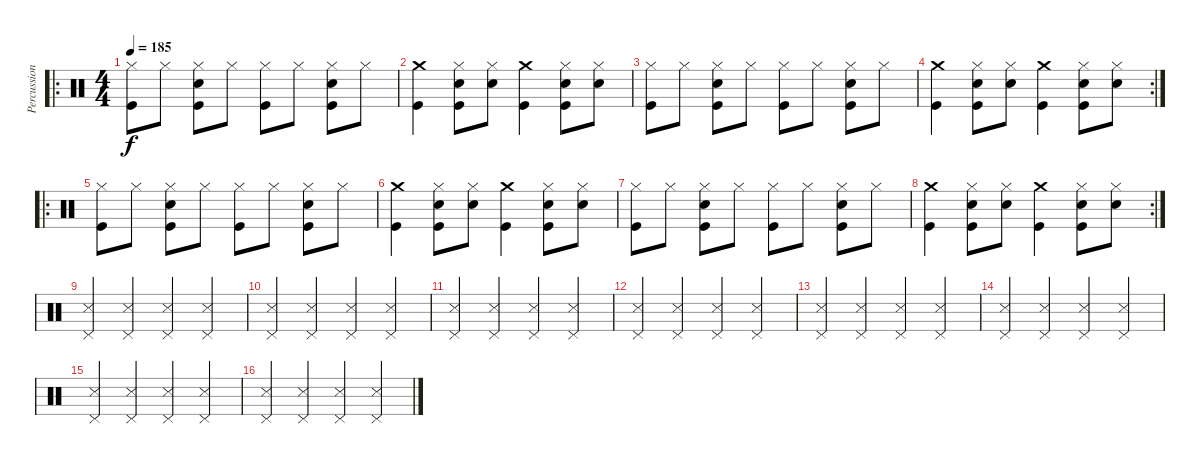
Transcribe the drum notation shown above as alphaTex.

\track ("Percussion" "Percussion") {instrument percussion}
\staff {score}
\articulation defaults
\ro
\ts (4 4)
\tempo 185
\clef neutral
\ks c
("Hi-Hat (closed)" "Kick (hit)").8{dy f} "Hi-Hat (closed)".8 ("Hi-Hat (closed)" "Snare (hit) 2" "Kick (hit)").8 "Hi-Hat (closed)".8 ("Hi-Hat (closed)" "Kick (hit)").8 "Hi-Hat (closed)".8 ("Hi-Hat (closed)" "Snare (hit) 2" "Kick (hit)").8 "Hi-Hat (closed)".8 |
("Crash medium (hit)" "Kick (hit)").4 ("Hi-Hat (closed)" "Snare (hit) 2" "Kick (hit)").8 ("Hi-Hat (closed)" "Snare (hit) 2").8 ("Crash medium (hit)" "Kick (hit)").4 ("Hi-Hat (closed)" "Snare (hit) 2" "Kick (hit)").8 ("Hi-Hat (closed)" "Snare (hit) 2").8 |
("Hi-Hat (closed)" "Kick (hit)").8 "Hi-Hat (closed)".8 ("Hi-Hat (closed)" "Snare (hit) 2" "Kick (hit)").8 "Hi-Hat (closed)".8 ("Hi-Hat (closed)" "Kick (hit)").8 "Hi-Hat (closed)".8 ("Hi-Hat (closed)" "Snare (hit) 2" "Kick (hit)").8 "Hi-Hat (closed)".8 |
\rc 2
("Crash medium (hit)" "Kick (hit)").4 ("Hi-Hat (closed)" "Snare (hit) 2" "Kick (hit)").8 ("Hi-Hat (closed)" "Snare (hit) 2").8 ("Crash medium (hit)" "Kick (hit)").4 ("Hi-Hat (closed)" "Snare (hit) 2" "Kick (hit)").8 ("Hi-Hat (closed)" "Snare (hit) 2").8 |
\ro
("Hi-Hat (closed)" "Kick (hit)").8 "Hi-Hat (closed)".8 ("Hi-Hat (closed)" "Snare (hit) 2" "Kick (hit)").8 "Hi-Hat (closed)".8 ("Hi-Hat (closed)" "Kick (hit)").8 "Hi-Hat (closed)".8 ("Hi-Hat (closed)" "Snare (hit) 2" "Kick (hit)").8 "Hi-Hat (closed)".8 |
("Crash medium (hit)" "Kick (hit)").4 ("Hi-Hat (closed)" "Snare (hit) 2" "Kick (hit)").8 ("Hi-Hat (closed)" "Snare (hit) 2").8 ("Crash medium (hit)" "Kick (hit)").4 ("Hi-Hat (closed)" "Snare (hit) 2" "Kick (hit)").8 ("Hi-Hat (closed)" "Snare (hit) 2").8 |
("Hi-Hat (closed)" "Kick (hit)").8 "Hi-Hat (closed)".8 ("Hi-Hat (closed)" "Snare (hit) 2" "Kick (hit)").8 "Hi-Hat (closed)".8 ("Hi-Hat (closed)" "Kick (hit)").8 "Hi-Hat (closed)".8 ("Hi-Hat (closed)" "Snare (hit) 2" "Kick (hit)").8 "Hi-Hat (closed)".8 |
\rc 2
("Crash medium (hit)" "Kick (hit)").4 ("Hi-Hat (closed)" "Snare (hit) 2" "Kick (hit)").8 ("Hi-Hat (closed)" "Snare (hit) 2").8 ("Crash medium (hit)" "Kick (hit)").4 ("Hi-Hat (closed)" "Snare (hit) 2" "Kick (hit)").8 ("Hi-Hat (closed)" "Snare (hit) 2").8 |
("Pedal Hi-Hat (hit)" "Metronome (hit)").4 ("Pedal Hi-Hat (hit)" "Metronome (hit)").4 ("Pedal Hi-Hat (hit)" "Metronome (hit)").4 ("Pedal Hi-Hat (hit)" "Metronome (hit)").4 |
("Pedal Hi-Hat (hit)" "Metronome (hit)").4 ("Pedal Hi-Hat (hit)" "Metronome (hit)").4 ("Pedal Hi-Hat (hit)" "Metronome (hit)").4 ("Pedal Hi-Hat (hit)" "Metronome (hit)").4 |
("Pedal Hi-Hat (hit)" "Metronome (hit)").4 ("Pedal Hi-Hat (hit)" "Metronome (hit)").4 ("Pedal Hi-Hat (hit)" "Metronome (hit)").4 ("Pedal Hi-Hat (hit)" "Metronome (hit)").4 |
("Pedal Hi-Hat (hit)" "Metronome (hit)").4 ("Pedal Hi-Hat (hit)" "Metronome (hit)").4 ("Pedal Hi-Hat (hit)" "Metronome (hit)").4 ("Pedal Hi-Hat (hit)" "Metronome (hit)").4 |
("Pedal Hi-Hat (hit)" "Metronome (hit)").4 ("Pedal Hi-Hat (hit)" "Metronome (hit)").4 ("Pedal Hi-Hat (hit)" "Metronome (hit)").4 ("Pedal Hi-Hat (hit)" "Metronome (hit)").4 |
("Pedal Hi-Hat (hit)" "Metronome (hit)").4 ("Pedal Hi-Hat (hit)" "Metronome (hit)").4 ("Pedal Hi-Hat (hit)" "Metronome (hit)").4 ("Pedal Hi-Hat (hit)" "Metronome (hit)").4 |
("Pedal Hi-Hat (hit)" "Metronome (hit)").4 ("Pedal Hi-Hat (hit)" "Metronome (hit)").4 ("Pedal Hi-Hat (hit)" "Metronome (hit)").4 ("Pedal Hi-Hat (hit)" "Metronome (hit)").4 |
("Pedal Hi-Hat (hit)" "Metronome (hit)").4 ("Pedal Hi-Hat (hit)" "Metronome (hit)").4 ("Pedal Hi-Hat (hit)" "Metronome (hit)").4 ("Pedal Hi-Hat (hit)" "Metronome (hit)").4
